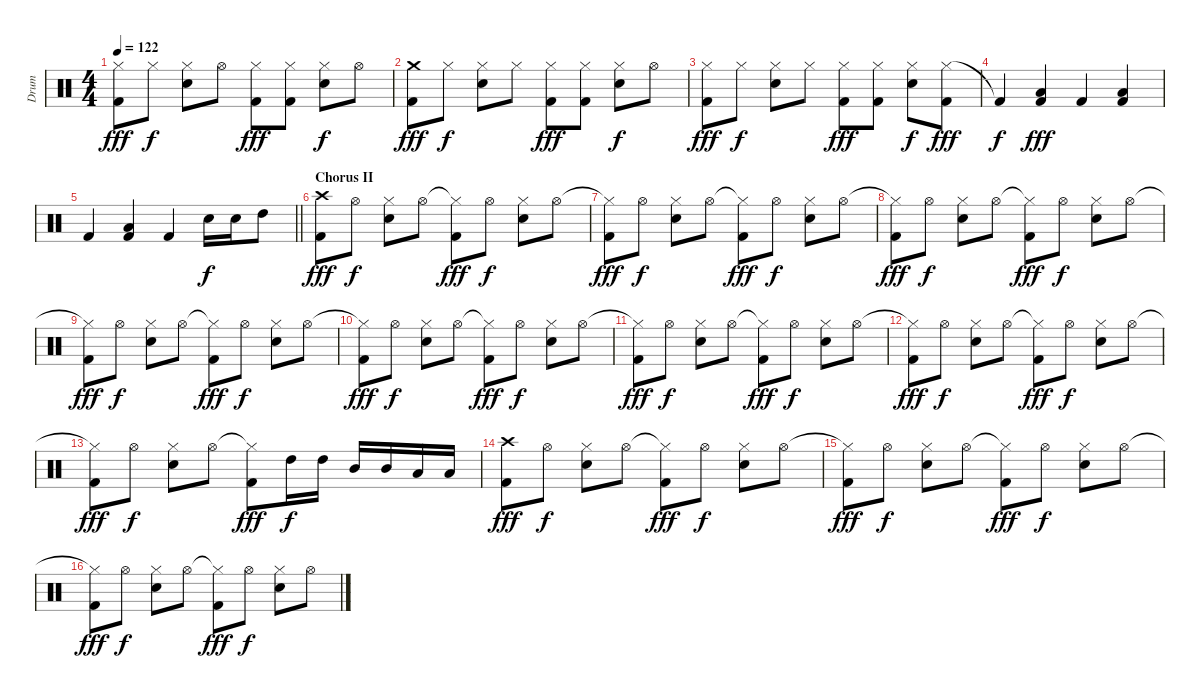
\track ("Drum" "Drum") {instrument percussion}
\staff {score}
\articulation defaults
\ts (4 4)
\tempo 122
\clef neutral
\ks c
("Hi-Hat (closed)" "Kick (hit) 2").8{dy fff} "Hi-Hat (closed)".8{dy f} ("Hi-Hat (closed)" "Electric Snare (hit)").8 "Hi-Hat (open)".8 ("Hi-Hat (closed)" "Kick (hit) 2").8{dy fff} ("Hi-Hat (closed)" "Kick (hit) 2").8 ("Hi-Hat (closed)" "Electric Snare (hit)").8{dy f} "Hi-Hat (open)".8 |
("Crash medium (hit)" "Kick (hit) 2").8{dy fff} "Hi-Hat (closed)".8{dy f} ("Hi-Hat (closed)" "Electric Snare (hit)").8 "Hi-Hat (closed)".8 ("Hi-Hat (closed)" "Kick (hit) 2").8{dy fff} ("Hi-Hat (closed)" "Kick (hit) 2").8 ("Hi-Hat (closed)" "Electric Snare (hit)").8{dy f} "Hi-Hat (open)".8 |
("Hi-Hat (closed)" "Kick (hit) 2").8{dy fff} "Hi-Hat (closed)".8{dy f} ("Hi-Hat (closed)" "Electric Snare (hit)").8 "Hi-Hat (closed)".8 ("Hi-Hat (closed)" "Kick (hit) 2").8{dy fff} ("Hi-Hat (closed)" "Kick (hit) 2").8 ("Hi-Hat (closed)" "Electric Snare (hit)").8{dy f} ("Hi-Hat (closed)" "Kick (hit) 2").8{dy fff} |
"Kick (hit) 2"{t}.4{dy f} ("Low Tom (hit)" "Kick (hit) 2").4{dy fff} "Kick (hit) 2".4 ("Low Tom (hit)" "Kick (hit) 2").4 |
\barLineRight lightlight "Kick (hit) 2".4
("Low Tom (hit)" "Kick (hit) 2").4 "Kick (hit) 2".4 "Electric Snare (hit)".16{dy f} "Electric Snare (hit)".16 "High Tom (hit)".8 |
\section ("" "Chorus II")
("Crash high (hit)" "Kick (hit) 2").8{dy fff} "Hi-Hat (open)".8{dy f} ("Hi-Hat (closed)" "Electric Snare (hit)").8 "Hi-Hat (open)".8 ("Hi-Hat (closed)"{t} "Kick (hit) 2").8{dy fff} "Hi-Hat (open)".8{dy f} ("Hi-Hat (closed)" "Electric Snare (hit)").8 "Hi-Hat (open)".8 |
("Hi-Hat (closed)"{t} "Kick (hit) 2").8{dy fff} "Hi-Hat (open)".8{dy f} ("Hi-Hat (closed)" "Electric Snare (hit)").8 "Hi-Hat (open)".8 ("Hi-Hat (closed)"{t} "Kick (hit) 2").8{dy fff} "Hi-Hat (open)".8{dy f} ("Hi-Hat (closed)" "Electric Snare (hit)").8 "Hi-Hat (open)".8 |
("Hi-Hat (closed)"{t} "Kick (hit) 2").8{dy fff} "Hi-Hat (open)".8{dy f} ("Hi-Hat (closed)" "Electric Snare (hit)").8 "Hi-Hat (open)".8 ("Hi-Hat (closed)"{t} "Kick (hit) 2").8{dy fff} "Hi-Hat (open)".8{dy f} ("Hi-Hat (closed)" "Electric Snare (hit)").8 "Hi-Hat (open)".8 |
("Hi-Hat (closed)"{t} "Kick (hit) 2").8{dy fff} "Hi-Hat (open)".8{dy f} ("Hi-Hat (closed)" "Electric Snare (hit)").8 "Hi-Hat (open)".8 ("Hi-Hat (closed)"{t} "Kick (hit) 2").8{dy fff} "Hi-Hat (open)".8{dy f} ("Hi-Hat (closed)" "Electric Snare (hit)").8 "Hi-Hat (open)".8 |
("Hi-Hat (closed)"{t} "Kick (hit) 2").8{dy fff} "Hi-Hat (open)".8{dy f} ("Hi-Hat (closed)" "Electric Snare (hit)").8 "Hi-Hat (open)".8 ("Hi-Hat (closed)"{t} "Kick (hit) 2").8{dy fff} "Hi-Hat (open)".8{dy f} ("Hi-Hat (closed)" "Electric Snare (hit)").8 "Hi-Hat (open)".8 |
("Hi-Hat (closed)"{t} "Kick (hit) 2").8{dy fff} "Hi-Hat (open)".8{dy f} ("Hi-Hat (closed)" "Electric Snare (hit)").8 "Hi-Hat (open)".8 ("Hi-Hat (closed)"{t} "Kick (hit) 2").8{dy fff} "Hi-Hat (open)".8{dy f} ("Hi-Hat (closed)" "Electric Snare (hit)").8 "Hi-Hat (open)".8 |
("Hi-Hat (closed)"{t} "Kick (hit) 2").8{dy fff} "Hi-Hat (open)".8{dy f} ("Hi-Hat (closed)" "Electric Snare (hit)").8 "Hi-Hat (open)".8 ("Hi-Hat (closed)"{t} "Kick (hit) 2").8{dy fff} "Hi-Hat (open)".8{dy f} ("Hi-Hat (closed)" "Electric Snare (hit)").8 "Hi-Hat (open)".8 |
("Hi-Hat (closed)"{t} "Kick (hit) 2").8{dy fff} "Hi-Hat (open)".8{dy f} ("Hi-Hat (closed)" "Electric Snare (hit)").8 "Hi-Hat (open)".8 ("Hi-Hat (closed)"{t} "Kick (hit) 2").8{dy fff} "High Tom (hit)".16{dy f} "High Tom (hit)".16 "Mid Tom (hit)".16 "Mid Tom (hit)".16 "Low Tom (hit)".16 "Low Tom (hit)".16 |
("Crash high (hit)" "Kick (hit) 2").8{dy fff} "Hi-Hat (open)".8{dy f} ("Hi-Hat (closed)" "Electric Snare (hit)").8 "Hi-Hat (open)".8 ("Hi-Hat (closed)"{t} "Kick (hit) 2").8{dy fff} "Hi-Hat (open)".8{dy f} ("Hi-Hat (closed)" "Electric Snare (hit)").8 "Hi-Hat (open)".8 |
("Hi-Hat (closed)"{t} "Kick (hit) 2").8{dy fff} "Hi-Hat (open)".8{dy f} ("Hi-Hat (closed)" "Electric Snare (hit)").8 "Hi-Hat (open)".8 ("Hi-Hat (closed)"{t} "Kick (hit) 2").8{dy fff} "Hi-Hat (open)".8{dy f} ("Hi-Hat (closed)" "Electric Snare (hit)").8 "Hi-Hat (open)".8 |
("Hi-Hat (closed)"{t} "Kick (hit) 2").8{dy fff} "Hi-Hat (open)".8{dy f} ("Hi-Hat (closed)" "Electric Snare (hit)").8 "Hi-Hat (open)".8 ("Hi-Hat (closed)"{t} "Kick (hit) 2").8{dy fff} "Hi-Hat (open)".8{dy f} ("Hi-Hat (closed)" "Electric Snare (hit)").8 "Hi-Hat (open)".8
